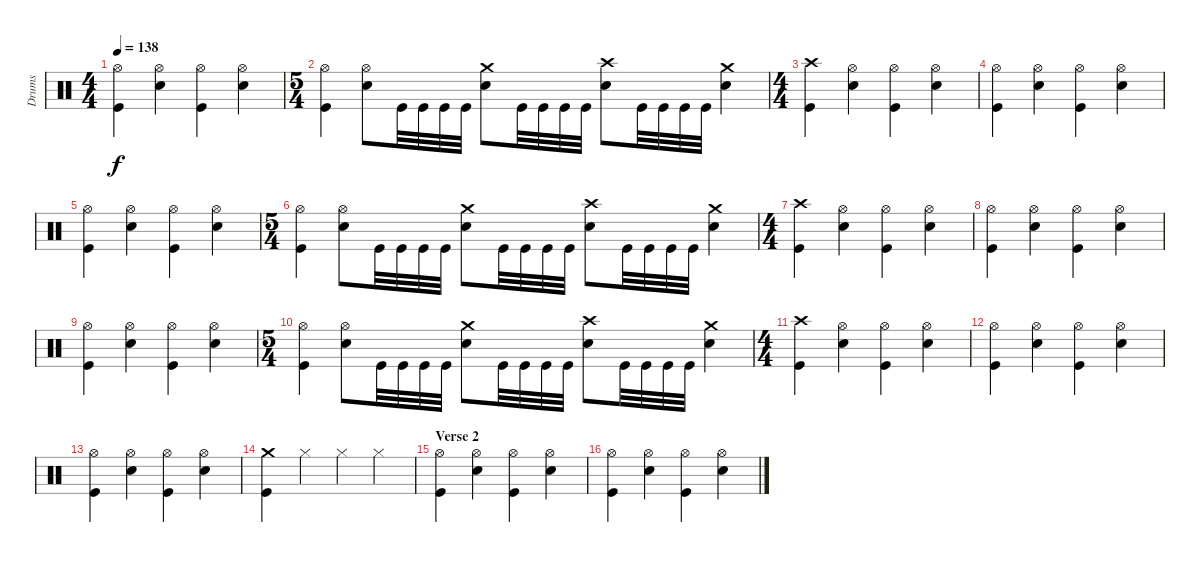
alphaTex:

\track ("Drums" "Drums") {instrument percussion}
\staff {score}
\articulation defaults
\ts (4 4)
\tempo 138
\clef neutral
\ks c
("Hi-Hat (open)" "Kick (hit)").4{dy f} ("Hi-Hat (open)" "Electric Snare (hit)").4 ("Hi-Hat (open)" "Kick (hit)").4 ("Hi-Hat (open)" "Electric Snare (hit)").4 |
\ts (5 4)
("Hi-Hat (open)" "Kick (hit)").4 ("Hi-Hat (open)" "Electric Snare (hit)").8 "Kick (hit)".32 "Kick (hit)".32 "Kick (hit)".32 "Kick (hit)".32 ("Crash medium (hit)" "Electric Snare (hit)").8 "Kick (hit)".32 "Kick (hit)".32 "Kick (hit)".32 "Kick (hit)".32 ("Crash high (hit)" "Electric Snare (hit)").8 "Kick (hit)".32 "Kick (hit)".32 "Kick (hit)".32 "Kick (hit)".32 ("Crash medium (hit)" "Electric Snare (hit)").4 |
\ts (4 4)
("Crash high (hit)" "Kick (hit)").4 ("Hi-Hat (open)" "Electric Snare (hit)").4 ("Hi-Hat (open)" "Kick (hit)").4 ("Hi-Hat (open)" "Electric Snare (hit)").4 |
("Hi-Hat (open)" "Kick (hit)").4 ("Hi-Hat (open)" "Electric Snare (hit)").4 ("Hi-Hat (open)" "Kick (hit)").4 ("Hi-Hat (open)" "Electric Snare (hit)").4 |
("Hi-Hat (open)" "Kick (hit)").4 ("Hi-Hat (open)" "Electric Snare (hit)").4 ("Hi-Hat (open)" "Kick (hit)").4 ("Hi-Hat (open)" "Electric Snare (hit)").4 |
\ts (5 4)
("Hi-Hat (open)" "Kick (hit)").4 ("Hi-Hat (open)" "Electric Snare (hit)").8 "Kick (hit)".32 "Kick (hit)".32 "Kick (hit)".32 "Kick (hit)".32 ("Crash medium (hit)" "Electric Snare (hit)").8 "Kick (hit)".32 "Kick (hit)".32 "Kick (hit)".32 "Kick (hit)".32 ("Crash high (hit)" "Electric Snare (hit)").8 "Kick (hit)".32 "Kick (hit)".32 "Kick (hit)".32 "Kick (hit)".32 ("Crash medium (hit)" "Electric Snare (hit)").4 |
\ts (4 4)
("Crash high (hit)" "Kick (hit)").4 ("Hi-Hat (open)" "Electric Snare (hit)").4 ("Hi-Hat (open)" "Kick (hit)").4 ("Hi-Hat (open)" "Electric Snare (hit)").4 |
("Hi-Hat (open)" "Kick (hit)").4 ("Hi-Hat (open)" "Electric Snare (hit)").4 ("Hi-Hat (open)" "Kick (hit)").4 ("Hi-Hat (open)" "Electric Snare (hit)").4 |
("Hi-Hat (open)" "Kick (hit)").4 ("Hi-Hat (open)" "Electric Snare (hit)").4 ("Hi-Hat (open)" "Kick (hit)").4 ("Hi-Hat (open)" "Electric Snare (hit)").4 |
\ts (5 4)
("Hi-Hat (open)" "Kick (hit)").4 ("Hi-Hat (open)" "Electric Snare (hit)").8 "Kick (hit)".32 "Kick (hit)".32 "Kick (hit)".32 "Kick (hit)".32 ("Crash medium (hit)" "Electric Snare (hit)").8 "Kick (hit)".32 "Kick (hit)".32 "Kick (hit)".32 "Kick (hit)".32 ("Crash high (hit)" "Electric Snare (hit)").8 "Kick (hit)".32 "Kick (hit)".32 "Kick (hit)".32 "Kick (hit)".32 ("Crash medium (hit)" "Electric Snare (hit)").4 |
\ts (4 4)
("Crash high (hit)" "Kick (hit)").4 ("Hi-Hat (open)" "Electric Snare (hit)").4 ("Hi-Hat (open)" "Kick (hit)").4 ("Hi-Hat (open)" "Electric Snare (hit)").4 |
("Hi-Hat (open)" "Kick (hit)").4 ("Hi-Hat (open)" "Electric Snare (hit)").4 ("Hi-Hat (open)" "Kick (hit)").4 ("Hi-Hat (open)" "Electric Snare (hit)").4 |
("Hi-Hat (open)" "Kick (hit)").4 ("Hi-Hat (open)" "Electric Snare (hit)").4 ("Hi-Hat (open)" "Kick (hit)").4 ("Hi-Hat (open)" "Electric Snare (hit)").4 |
("Crash medium (hit)" "Kick (hit)").4 "Hi-Hat (closed)".4 "Hi-Hat (closed)".4 "Hi-Hat (closed)".4 |
\section ("" "Verse 2")
("Hi-Hat (open)" "Kick (hit)").4 ("Hi-Hat (open)" "Electric Snare (hit)").4 ("Hi-Hat (open)" "Kick (hit)").4 ("Hi-Hat (open)" "Electric Snare (hit)").4 |
("Hi-Hat (open)" "Kick (hit)").4 ("Hi-Hat (open)" "Electric Snare (hit)").4 ("Hi-Hat (open)" "Kick (hit)").4 ("Hi-Hat (open)" "Electric Snare (hit)").4
